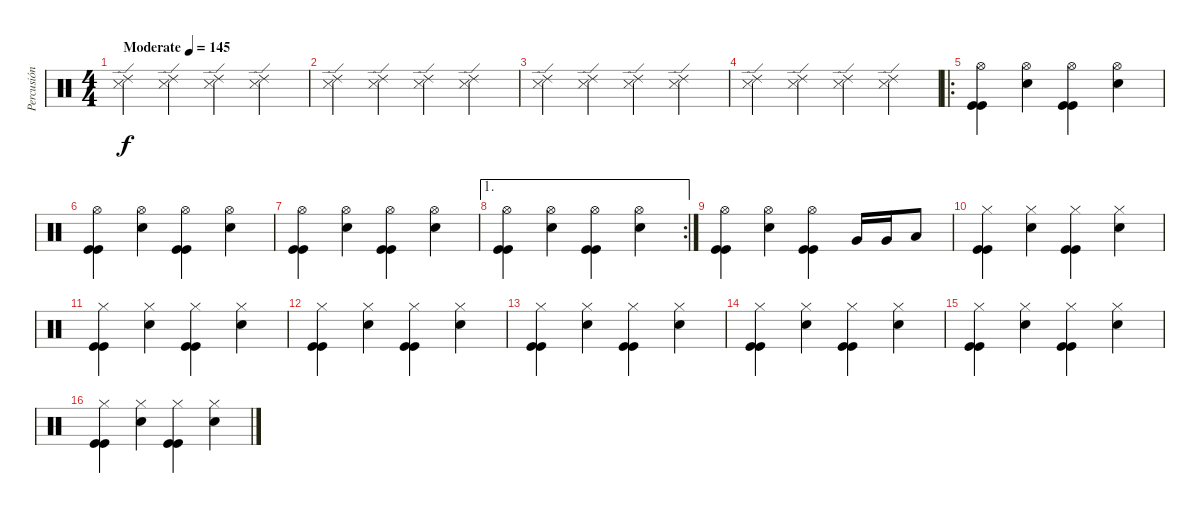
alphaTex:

\track ("Percusión" "Percusión") {instrument percussion}
\staff {score}
\articulation defaults
\ts (4 4)
\tempo (145 "Moderate")
\clef neutral
\ks c
("Ride (edge) 2" "Metronome (hit)").4{dy f} ("Ride (edge) 2" "Metronome (hit)").4 ("Ride (edge) 2" "Metronome (hit)").4 ("Ride (edge) 2" "Metronome (hit)").4 |
("Ride (edge) 2" "Metronome (hit)").4 ("Ride (edge) 2" "Metronome (hit)").4 ("Ride (edge) 2" "Metronome (hit)").4 ("Ride (edge) 2" "Metronome (hit)").4 |
("Ride (edge) 2" "Metronome (hit)").4 ("Ride (edge) 2" "Metronome (hit)").4 ("Ride (edge) 2" "Metronome (hit)").4 ("Ride (edge) 2" "Metronome (hit)").4 |
("Ride (edge) 2" "Metronome (hit)").4 ("Ride (edge) 2" "Metronome (hit)").4 ("Ride (edge) 2" "Metronome (hit)").4 ("Ride (edge) 2" "Metronome (hit)").4 |
\ro
("Hi-Hat (open)" "Kick (hit)" "Kick (hit)").4 ("Hi-Hat (open)" "Electric Snare (hit)").4 ("Hi-Hat (open)" "Kick (hit)" "Kick (hit)").4 ("Hi-Hat (open)" "Electric Snare (hit)").4 |
("Hi-Hat (open)" "Kick (hit)" "Kick (hit)").4 ("Hi-Hat (open)" "Electric Snare (hit)").4 ("Hi-Hat (open)" "Kick (hit)" "Kick (hit)").4 ("Hi-Hat (open)" "Electric Snare (hit)").4 |
("Hi-Hat (open)" "Kick (hit)" "Kick (hit)").4 ("Hi-Hat (open)" "Electric Snare (hit)").4 ("Hi-Hat (open)" "Kick (hit)" "Kick (hit)").4 ("Hi-Hat (open)" "Electric Snare (hit)").4 |
\ae 1
\rc 2
("Hi-Hat (open)" "Kick (hit)" "Kick (hit)").4 ("Hi-Hat (open)" "Electric Snare (hit)").4 ("Hi-Hat (open)" "Kick (hit)" "Kick (hit)").4 ("Hi-Hat (open)" "Electric Snare (hit)").4 |
("Hi-Hat (open)" "Kick (hit)" "Kick (hit)").4 ("Hi-Hat (open)" "Electric Snare (hit)").4 ("Hi-Hat (open)" "Kick (hit)" "Kick (hit)").4 "Very Low Tom (hit)".16 "Very Low Tom (hit)".16 "Low Floor Tom (hit)".8 |
("Hi-Hat (closed)" "Kick (hit)" "Kick (hit)").4 ("Hi-Hat (closed)" "Electric Snare (hit)").4 ("Hi-Hat (closed)" "Kick (hit)" "Kick (hit)").4 ("Hi-Hat (closed)" "Electric Snare (hit)").4 |
("Hi-Hat (closed)" "Kick (hit)" "Kick (hit)").4 ("Hi-Hat (closed)" "Electric Snare (hit)").4 ("Hi-Hat (closed)" "Kick (hit)" "Kick (hit)").4 ("Hi-Hat (closed)" "Electric Snare (hit)").4 |
("Hi-Hat (closed)" "Kick (hit)" "Kick (hit)").4 ("Hi-Hat (closed)" "Electric Snare (hit)").4 ("Hi-Hat (closed)" "Kick (hit)" "Kick (hit)").4 ("Hi-Hat (closed)" "Electric Snare (hit)").4 |
("Hi-Hat (closed)" "Kick (hit)" "Kick (hit)").4 ("Hi-Hat (closed)" "Electric Snare (hit)").4 ("Hi-Hat (closed)" "Kick (hit)" "Kick (hit)").4 ("Hi-Hat (closed)" "Electric Snare (hit)").4 |
("Hi-Hat (closed)" "Kick (hit)" "Kick (hit)").4 ("Hi-Hat (closed)" "Electric Snare (hit)").4 ("Hi-Hat (closed)" "Kick (hit)" "Kick (hit)").4 ("Hi-Hat (closed)" "Electric Snare (hit)").4 |
("Hi-Hat (closed)" "Kick (hit)" "Kick (hit)").4 ("Hi-Hat (closed)" "Electric Snare (hit)").4 ("Hi-Hat (closed)" "Kick (hit)" "Kick (hit)").4 ("Hi-Hat (closed)" "Electric Snare (hit)").4 |
("Hi-Hat (closed)" "Kick (hit)" "Kick (hit)").4 ("Hi-Hat (closed)" "Electric Snare (hit)").4 ("Hi-Hat (closed)" "Kick (hit)" "Kick (hit)").4 ("Hi-Hat (closed)" "Electric Snare (hit)").4
